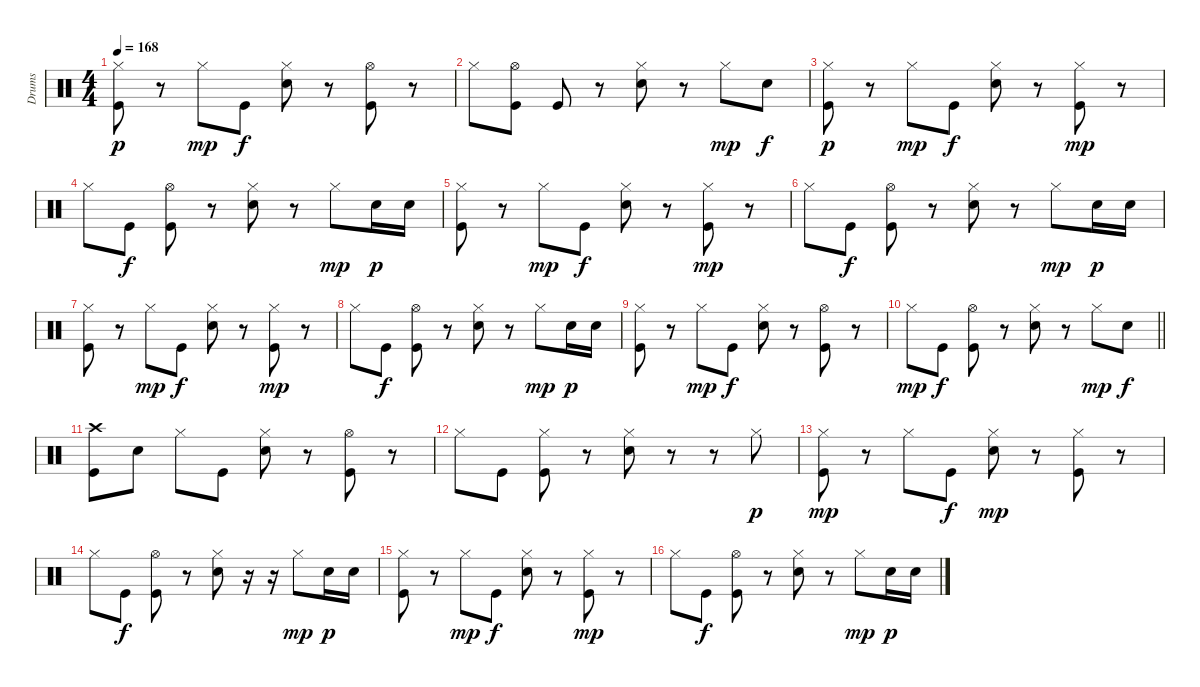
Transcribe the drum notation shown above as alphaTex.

\track ("Drums" "Drums") {instrument percussion}
\staff {score}
\articulation defaults
\ts (4 4)
\tempo 168
\clef neutral
\ks c
("Hi-Hat (closed)" "Kick (hit)").8{dy p} r.8 "Hi-Hat (closed)".8{dy mp} "Kick (hit)".8{dy f} ("Hi-Hat (closed)" "Electric Snare (hit)").8 r.8 ("Hi-Hat (open)" "Kick (hit)").8 r.8 |
"Hi-Hat (closed)".8 ("Hi-Hat (open)" "Kick (hit)").8 "Kick (hit)".8 r.8 ("Hi-Hat (closed)" "Electric Snare (hit)").8 r.8 "Hi-Hat (closed)".8{dy mp} "Electric Snare (hit)".8{dy f} |
("Hi-Hat (closed)" "Kick (hit)").8{dy p} r.8 "Hi-Hat (closed)".8{dy mp} "Kick (hit)".8{dy f} ("Hi-Hat (closed)" "Electric Snare (hit)").8 r.8 ("Hi-Hat (closed)" "Kick (hit)").8{dy mp} r.8 |
"Hi-Hat (closed)".8 "Kick (hit)".8{dy f} ("Hi-Hat (open)" "Kick (hit)").8 r.8 ("Hi-Hat (closed)" "Electric Snare (hit)").8 r.8 "Hi-Hat (closed)".8{dy mp} "Electric Snare (hit)".16{dy p} "Electric Snare (hit)".16 |
("Hi-Hat (closed)" "Kick (hit)").8 r.8 "Hi-Hat (closed)".8{dy mp} "Kick (hit)".8{dy f} ("Hi-Hat (closed)" "Electric Snare (hit)").8 r.8 ("Hi-Hat (closed)" "Kick (hit)").8{dy mp} r.8 |
"Hi-Hat (closed)".8 "Kick (hit)".8{dy f} ("Hi-Hat (open)" "Kick (hit)").8 r.8 ("Hi-Hat (closed)" "Electric Snare (hit)").8 r.8 "Hi-Hat (closed)".8{dy mp} "Electric Snare (hit)".16{dy p} "Electric Snare (hit)".16 |
("Hi-Hat (closed)" "Kick (hit)").8 r.8 "Hi-Hat (closed)".8{dy mp} "Kick (hit)".8{dy f} ("Hi-Hat (closed)" "Electric Snare (hit)").8 r.8 ("Hi-Hat (closed)" "Kick (hit)").8{dy mp} r.8 |
"Hi-Hat (closed)".8 "Kick (hit)".8{dy f} ("Hi-Hat (open)" "Kick (hit)").8 r.8 ("Hi-Hat (closed)" "Electric Snare (hit)").8 r.8 "Hi-Hat (closed)".8{dy mp} "Electric Snare (hit)".16{dy p} "Electric Snare (hit)".16 |
("Hi-Hat (closed)" "Kick (hit)").8 r.8 "Hi-Hat (closed)".8{dy mp} "Kick (hit)".8{dy f} ("Hi-Hat (closed)" "Electric Snare (hit)").8 r.8 ("Hi-Hat (open)" "Kick (hit)").8 r.8 |
\barLineRight lightlight "Hi-Hat (closed)".8{dy mp} "Kick (hit)".8{dy f}
("Hi-Hat (open)" "Kick (hit)").8 r.8 ("Hi-Hat (closed)" "Electric Snare (hit)").8 r.8 "Hi-Hat (closed)".8{dy mp} "Electric Snare (hit)".8{dy f} |
\section ("" "")
("Crash high (hit)" "Kick (hit)").8 "Electric Snare (hit)".8 "Hi-Hat (closed)".8 "Kick (hit)".8 ("Hi-Hat (closed)" "Electric Snare (hit)").8 r.8 ("Hi-Hat (open)" "Kick (hit)").8 r.8 |
"Hi-Hat (closed)".8 "Kick (hit)".8 ("Hi-Hat (closed)" "Kick (hit)").8 r.8 ("Hi-Hat (closed)" "Electric Snare (hit)").8 r.8 r.8 "Hi-Hat (closed)".8{dy p} |
("Hi-Hat (closed)" "Kick (hit)").8{dy mp} r.8 "Hi-Hat (closed)".8 "Kick (hit)".8{dy f} ("Hi-Hat (closed)" "Electric Snare (hit)").8{dy mp} r.8 ("Hi-Hat (closed)" "Kick (hit)").8 r.8 |
"Hi-Hat (closed)".8 "Kick (hit)".8{dy f} ("Hi-Hat (open)" "Kick (hit)").8 r.8 ("Hi-Hat (closed)" "Electric Snare (hit)").8 r.16 r.16 "Hi-Hat (closed)".8{dy mp} "Electric Snare (hit)".16{dy p} "Electric Snare (hit)".16 |
("Hi-Hat (closed)" "Kick (hit)").8 r.8 "Hi-Hat (closed)".8{dy mp} "Kick (hit)".8{dy f} ("Hi-Hat (closed)" "Electric Snare (hit)").8 r.8 ("Hi-Hat (closed)" "Kick (hit)").8{dy mp} r.8 |
"Hi-Hat (closed)".8 "Kick (hit)".8{dy f} ("Hi-Hat (open)" "Kick (hit)").8 r.8 ("Hi-Hat (closed)" "Electric Snare (hit)").8 r.8 "Hi-Hat (closed)".8{dy mp} "Electric Snare (hit)".16{dy p} "Electric Snare (hit)".16
